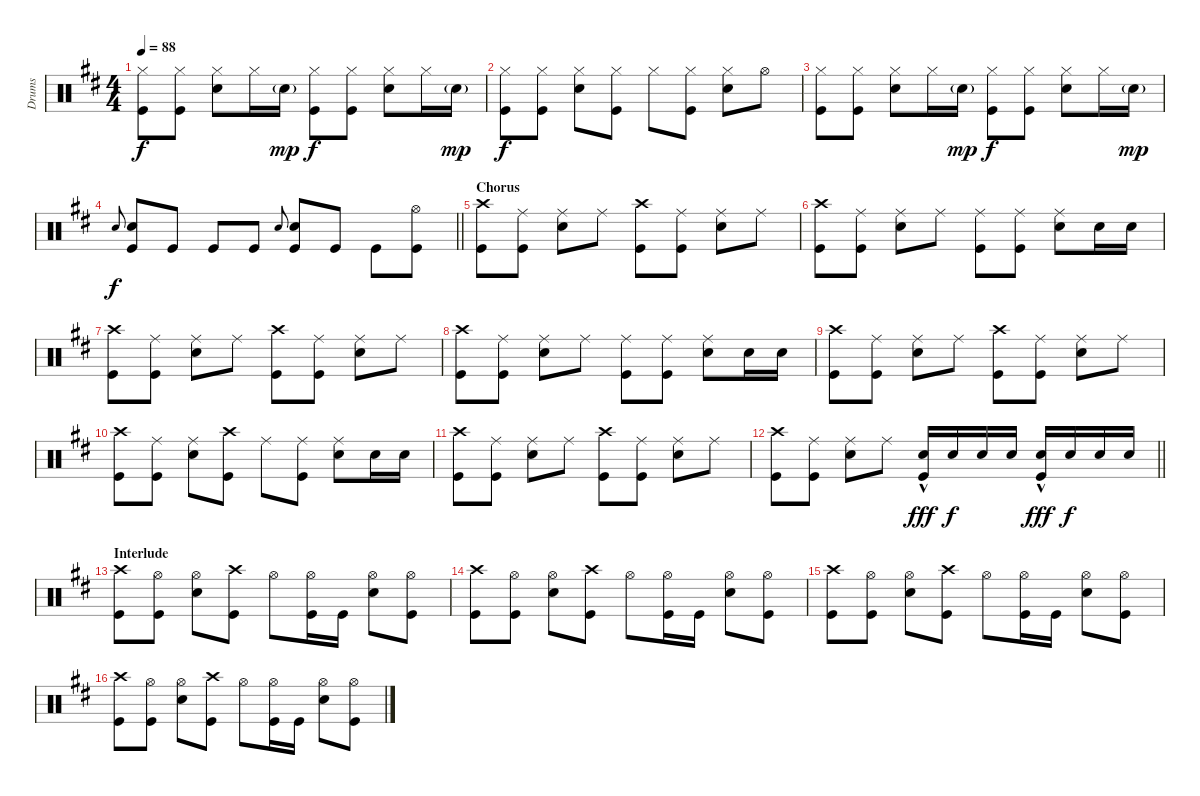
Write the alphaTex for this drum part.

\track ("Drums" "Drums") {instrument percussion}
\staff {score}
\articulation defaults
\ts (4 4)
\tempo 88
\clef neutral
\ks bminor
("Kick (hit)" "Hi-Hat (closed)").8{dy f} ("Kick (hit)" "Hi-Hat (closed)").8 ("Snare (hit) 2" "Hi-Hat (closed)").8 "Hi-Hat (closed)".16 "Snare (hit) 2"{g}.16{dy mp} ("Kick (hit)" "Hi-Hat (closed)").8{dy f} ("Kick (hit)" "Hi-Hat (closed)").8 ("Snare (hit) 2" "Hi-Hat (closed)").8 "Hi-Hat (closed)".16 "Snare (hit) 2"{g}.16{dy mp} |
("Kick (hit)" "Hi-Hat (closed)").8{dy f} ("Kick (hit)" "Hi-Hat (closed)").8 ("Snare (hit) 2" "Hi-Hat (closed)").8 ("Kick (hit)" "Hi-Hat (closed)").8 "Hi-Hat (closed)".8 ("Kick (hit)" "Hi-Hat (closed)").8 ("Snare (hit) 2" "Hi-Hat (closed)").8 "Hi-Hat (open)".8 |
("Kick (hit)" "Hi-Hat (closed)").8 ("Kick (hit)" "Hi-Hat (closed)").8 ("Snare (hit) 2" "Hi-Hat (closed)").8 "Hi-Hat (closed)".16 "Snare (hit) 2"{g}.16{dy mp} ("Kick (hit)" "Hi-Hat (closed)").8{dy f} ("Kick (hit)" "Hi-Hat (closed)").8 ("Snare (hit) 2" "Hi-Hat (closed)").8 "Hi-Hat (closed)".16 "Snare (hit) 2"{g}.16{dy mp} |
\barLineRight lightlight "Snare (hit) 2".8{gr onbeat dy f}
("Snare (hit) 2" "Kick (hit)").8 "Kick (hit)".8 "Kick (hit)".8 "Kick (hit)".8 "Snare (hit) 2".8{gr onbeat} ("Snare (hit) 2" "Kick (hit)").8 "Kick (hit)".8 "Kick (hit)".8 ("Hi-Hat (open)" "Kick (hit)").8 |
\section ("" "Chorus")
("Crash high (hit)" "Kick (hit)").8 ("Ride (middle)" "Kick (hit)").8 ("Ride (middle)" "Snare (hit) 2").8 "Ride (middle)".8 ("Crash high (hit)" "Kick (hit)").8 ("Ride (middle)" "Kick (hit)").8 ("Ride (middle)" "Snare (hit) 2").8 "Ride (middle)".8 |
("Crash high (hit)" "Kick (hit)").8 ("Ride (middle)" "Kick (hit)").8 ("Ride (middle)" "Snare (hit) 2").8 "Ride (middle)".8 ("Ride (middle)" "Kick (hit)").8 ("Ride (middle)" "Kick (hit)").8 ("Ride (middle)" "Snare (hit) 2").8 "Snare (hit) 2".16 "Snare (hit) 2".16 |
("Crash high (hit)" "Kick (hit)").8 ("Ride (middle)" "Kick (hit)").8 ("Ride (middle)" "Snare (hit) 2").8 "Ride (middle)".8 ("Crash high (hit)" "Kick (hit)").8 ("Ride (middle)" "Kick (hit)").8 ("Ride (middle)" "Snare (hit) 2").8 "Ride (middle)".8 |
("Crash high (hit)" "Kick (hit)").8 ("Ride (middle)" "Kick (hit)").8 ("Ride (middle)" "Snare (hit) 2").8 "Ride (middle)".8 ("Ride (middle)" "Kick (hit)").8 ("Ride (middle)" "Kick (hit)").8 ("Ride (middle)" "Snare (hit) 2").8 "Snare (hit) 2".16 "Snare (hit) 2".16 |
("Crash high (hit)" "Kick (hit)").8 ("Ride (middle)" "Kick (hit)").8 ("Ride (middle)" "Snare (hit) 2").8 "Ride (middle)".8 ("Crash high (hit)" "Kick (hit)").8 ("Ride (middle)" "Kick (hit)").8 ("Ride (middle)" "Snare (hit) 2").8 "Ride (middle)".8 |
("Crash high (hit)" "Kick (hit)").8 ("Ride (middle)" "Kick (hit)").8 ("Ride (middle)" "Snare (hit) 2").8 ("Crash high (hit)" "Kick (hit)").8 "Ride (middle)".8 ("Ride (middle)" "Kick (hit)").8 ("Ride (middle)" "Snare (hit) 2").8 "Snare (hit) 2".16 "Snare (hit) 2".16 |
("Crash high (hit)" "Kick (hit)").8 ("Ride (middle)" "Kick (hit)").8 ("Ride (middle)" "Snare (hit) 2").8 "Ride (middle)".8 ("Crash high (hit)" "Kick (hit)").8 ("Ride (middle)" "Kick (hit)").8 ("Ride (middle)" "Snare (hit) 2").8 "Ride (middle)".8 |
\barLineRight lightlight
("Crash high (hit)" "Kick (hit)").8 ("Ride (middle)" "Kick (hit)").8 ("Ride (middle)" "Snare (hit) 2").8 "Ride (middle)".8 ("Snare (hit) 2"{hac} "Kick (hit)").16{dy fff} "Snare (hit) 2".16{dy f} "Snare (hit) 2".16 "Snare (hit) 2".16 ("Snare (hit) 2"{hac} "Kick (hit)").16{dy fff} "Snare (hit) 2".16{dy f} "Snare (hit) 2".16 "Snare (hit) 2".16 |
\section ("" "Interlude")
("Crash high (hit)" "Kick (hit)").8 ("Hi-Hat (open)" "Kick (hit)").8 ("Hi-Hat (open)" "Snare (hit) 2").8 ("Crash high (hit)" "Kick (hit)").8 "Hi-Hat (open)".8 ("Kick (hit)" "Hi-Hat (open)").16 "Kick (hit)".16 ("Snare (hit) 2" "Hi-Hat (open)").8 ("Kick (hit)" "Hi-Hat (open)").8 |
("Crash high (hit)" "Kick (hit)").8 ("Hi-Hat (open)" "Kick (hit)").8 ("Hi-Hat (open)" "Snare (hit) 2").8 ("Crash high (hit)" "Kick (hit)").8 "Hi-Hat (open)".8 ("Kick (hit)" "Hi-Hat (open)").16 "Kick (hit)".16 ("Snare (hit) 2" "Hi-Hat (open)").8 ("Kick (hit)" "Hi-Hat (open)").8 |
("Crash high (hit)" "Kick (hit)").8 ("Hi-Hat (open)" "Kick (hit)").8 ("Hi-Hat (open)" "Snare (hit) 2").8 ("Crash high (hit)" "Kick (hit)").8 "Hi-Hat (open)".8 ("Kick (hit)" "Hi-Hat (open)").16 "Kick (hit)".16 ("Snare (hit) 2" "Hi-Hat (open)").8 ("Kick (hit)" "Hi-Hat (open)").8 |
("Crash high (hit)" "Kick (hit)").8 ("Hi-Hat (open)" "Kick (hit)").8 ("Hi-Hat (open)" "Snare (hit) 2").8 ("Crash high (hit)" "Kick (hit)").8 "Hi-Hat (open)".8 ("Kick (hit)" "Hi-Hat (open)").16 "Kick (hit)".16 ("Snare (hit) 2" "Hi-Hat (open)").8 ("Kick (hit)" "Hi-Hat (open)").8
